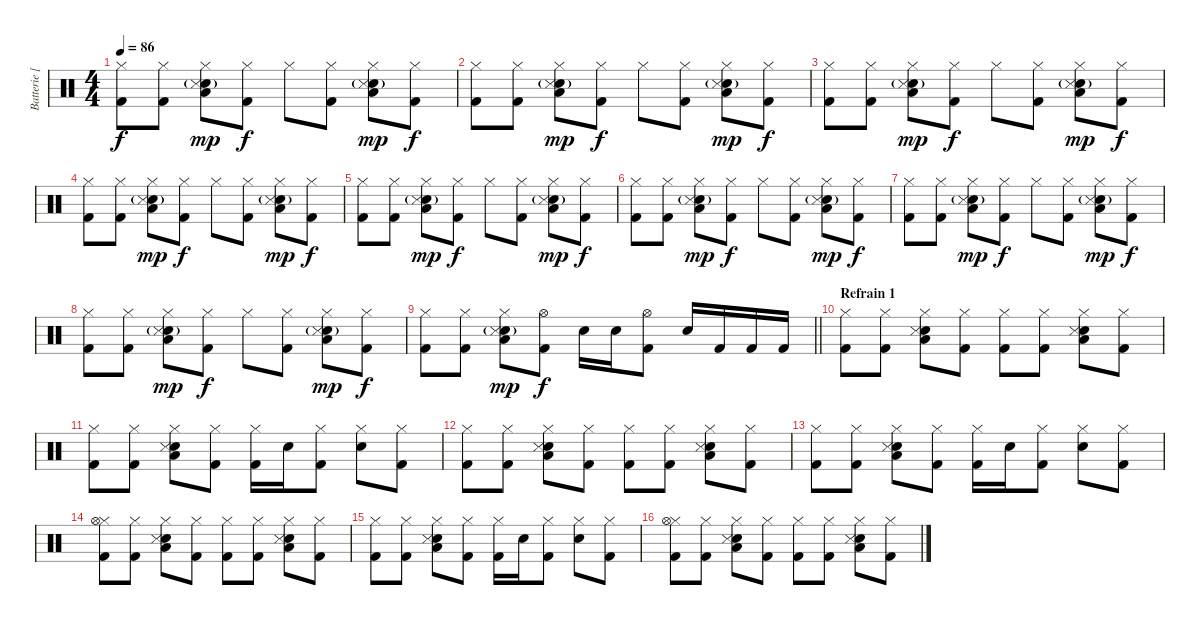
\track ("Batterie [Dominic Howard]" "Batterie [") {instrument percussion}
\staff {score}
\articulation defaults
\ts (4 4)
\tempo 86
\clef neutral
\ks c
("Hi-Hat (closed)" "Kick (hit) 2").8{dy f} ("Hi-Hat (closed)" "Kick (hit) 2").8 ("Hi-Hat (closed)" "Low Tom (hit)" "Electric Snare (hit)"{g} "Snare (side stick) 3").8{dy mp} ("Hi-Hat (closed)" "Kick (hit) 2").8{dy f} "Hi-Hat (closed)".8 ("Hi-Hat (closed)" "Kick (hit) 2").8 ("Hi-Hat (closed)" "Low Tom (hit)" "Electric Snare (hit)"{g} "Snare (side stick) 3").8{dy mp} ("Hi-Hat (closed)" "Kick (hit) 2").8{dy f} |
("Hi-Hat (closed)" "Kick (hit) 2").8 ("Hi-Hat (closed)" "Kick (hit) 2").8 ("Hi-Hat (closed)" "Low Tom (hit)" "Electric Snare (hit)"{g} "Snare (side stick) 3").8{dy mp} ("Hi-Hat (closed)" "Kick (hit) 2").8{dy f} "Hi-Hat (closed)".8 ("Hi-Hat (closed)" "Kick (hit) 2").8 ("Hi-Hat (closed)" "Low Tom (hit)" "Electric Snare (hit)"{g} "Snare (side stick) 3").8{dy mp} ("Hi-Hat (closed)" "Kick (hit) 2").8{dy f} |
("Hi-Hat (closed)" "Kick (hit) 2").8 ("Hi-Hat (closed)" "Kick (hit) 2").8 ("Hi-Hat (closed)" "Low Tom (hit)" "Electric Snare (hit)"{g} "Snare (side stick) 3").8{dy mp} ("Hi-Hat (closed)" "Kick (hit) 2").8{dy f} "Hi-Hat (closed)".8 ("Hi-Hat (closed)" "Kick (hit) 2").8 ("Hi-Hat (closed)" "Low Tom (hit)" "Electric Snare (hit)"{g} "Snare (side stick) 3").8{dy mp} ("Hi-Hat (closed)" "Kick (hit) 2").8{dy f} |
("Hi-Hat (closed)" "Kick (hit) 2").8 ("Hi-Hat (closed)" "Kick (hit) 2").8 ("Hi-Hat (closed)" "Low Tom (hit)" "Electric Snare (hit)"{g} "Snare (side stick) 3").8{dy mp} ("Hi-Hat (closed)" "Kick (hit) 2").8{dy f} "Hi-Hat (closed)".8 ("Hi-Hat (closed)" "Kick (hit) 2").8 ("Hi-Hat (closed)" "Low Tom (hit)" "Electric Snare (hit)"{g} "Snare (side stick) 3").8{dy mp} ("Hi-Hat (closed)" "Kick (hit) 2").8{dy f} |
("Hi-Hat (closed)" "Kick (hit) 2").8 ("Hi-Hat (closed)" "Kick (hit) 2").8 ("Hi-Hat (closed)" "Low Tom (hit)" "Electric Snare (hit)"{g} "Snare (side stick) 3").8{dy mp} ("Hi-Hat (closed)" "Kick (hit) 2").8{dy f} "Hi-Hat (closed)".8 ("Hi-Hat (closed)" "Kick (hit) 2").8 ("Hi-Hat (closed)" "Low Tom (hit)" "Electric Snare (hit)"{g} "Snare (side stick) 3").8{dy mp} ("Hi-Hat (closed)" "Kick (hit) 2").8{dy f} |
("Hi-Hat (closed)" "Kick (hit) 2").8 ("Hi-Hat (closed)" "Kick (hit) 2").8 ("Hi-Hat (closed)" "Low Tom (hit)" "Electric Snare (hit)"{g} "Snare (side stick) 3").8{dy mp} ("Hi-Hat (closed)" "Kick (hit) 2").8{dy f} "Hi-Hat (closed)".8 ("Hi-Hat (closed)" "Kick (hit) 2").8 ("Hi-Hat (closed)" "Low Tom (hit)" "Electric Snare (hit)"{g} "Snare (side stick) 3").8{dy mp} ("Hi-Hat (closed)" "Kick (hit) 2").8{dy f} |
("Hi-Hat (closed)" "Kick (hit) 2").8 ("Hi-Hat (closed)" "Kick (hit) 2").8 ("Hi-Hat (closed)" "Low Tom (hit)" "Electric Snare (hit)"{g} "Snare (side stick) 3").8{dy mp} ("Hi-Hat (closed)" "Kick (hit) 2").8{dy f} "Hi-Hat (closed)".8 ("Hi-Hat (closed)" "Kick (hit) 2").8 ("Hi-Hat (closed)" "Low Tom (hit)" "Electric Snare (hit)"{g} "Snare (side stick) 3").8{dy mp} ("Hi-Hat (closed)" "Kick (hit) 2").8{dy f} |
("Hi-Hat (closed)" "Kick (hit) 2").8 ("Hi-Hat (closed)" "Kick (hit) 2").8 ("Hi-Hat (closed)" "Low Tom (hit)" "Electric Snare (hit)"{g} "Snare (side stick) 3").8{dy mp} ("Hi-Hat (closed)" "Kick (hit) 2").8{dy f} "Hi-Hat (closed)".8 ("Hi-Hat (closed)" "Kick (hit) 2").8 ("Hi-Hat (closed)" "Low Tom (hit)" "Electric Snare (hit)"{g} "Snare (side stick) 3").8{dy mp} ("Hi-Hat (closed)" "Kick (hit) 2").8{dy f} |
\barLineRight lightlight
("Hi-Hat (closed)" "Kick (hit) 2").8 ("Hi-Hat (closed)" "Kick (hit) 2").8 ("Hi-Hat (closed)" "Low Tom (hit)" "Electric Snare (hit)"{g} "Snare (side stick) 3").8{dy mp} ("Hi-Hat (open)" "Kick (hit) 2").8{dy f} "Electric Snare (hit)".16 "Electric Snare (hit)".16 ("Hi-Hat (open)" "Kick (hit) 2").8 "Electric Snare (hit)".16 "Kick (hit) 2".16 "Kick (hit) 2".16 "Kick (hit) 2".16 |
\section ("" "Refrain 1")
("Hi-Hat (closed)" "Kick (hit) 2").8 ("Hi-Hat (closed)" "Kick (hit) 2").8 ("Hi-Hat (closed)" "Low Tom (hit)" "Electric Snare (hit)" "Snare (side stick) 3").8 ("Hi-Hat (closed)" "Kick (hit) 2").8 ("Hi-Hat (closed)" "Kick (hit) 2").8 ("Hi-Hat (closed)" "Kick (hit) 2").8 ("Hi-Hat (closed)" "Low Tom (hit)" "Electric Snare (hit)" "Snare (side stick) 3").8 ("Hi-Hat (closed)" "Kick (hit) 2").8 |
("Hi-Hat (closed)" "Kick (hit) 2").8 ("Hi-Hat (closed)" "Kick (hit) 2").8 ("Hi-Hat (closed)" "Low Tom (hit)" "Electric Snare (hit)" "Snare (side stick) 3").8 ("Hi-Hat (closed)" "Kick (hit) 2").8 ("Hi-Hat (closed)" "Kick (hit) 2").16 "Electric Snare (hit)".16 ("Hi-Hat (closed)" "Kick (hit) 2").8 ("Hi-Hat (closed)" "Electric Snare (hit)").8 ("Hi-Hat (closed)" "Kick (hit) 2").8 |
("Hi-Hat (closed)" "Kick (hit) 2").8 ("Hi-Hat (closed)" "Kick (hit) 2").8 ("Hi-Hat (closed)" "Low Tom (hit)" "Electric Snare (hit)" "Snare (side stick) 3").8 ("Hi-Hat (closed)" "Kick (hit) 2").8 ("Hi-Hat (closed)" "Kick (hit) 2").8 ("Hi-Hat (closed)" "Kick (hit) 2").8 ("Hi-Hat (closed)" "Low Tom (hit)" "Electric Snare (hit)" "Snare (side stick) 3").8 ("Hi-Hat (closed)" "Kick (hit) 2").8 |
("Hi-Hat (closed)" "Kick (hit) 2").8 ("Hi-Hat (closed)" "Kick (hit) 2").8 ("Hi-Hat (closed)" "Low Tom (hit)" "Electric Snare (hit)" "Snare (side stick) 3").8 ("Hi-Hat (closed)" "Kick (hit) 2").8 ("Hi-Hat (closed)" "Kick (hit) 2").16 "Electric Snare (hit)".16 ("Hi-Hat (closed)" "Kick (hit) 2").8 ("Hi-Hat (closed)" "Electric Snare (hit)").8 ("Hi-Hat (closed)" "Kick (hit) 2").8 |
("Hi-Hat (closed)" "Hi-Hat (open)" "Kick (hit) 2").8 ("Hi-Hat (closed)" "Kick (hit) 2").8 ("Hi-Hat (closed)" "Low Tom (hit)" "Electric Snare (hit)" "Snare (side stick) 3").8 ("Hi-Hat (closed)" "Kick (hit) 2").8 ("Hi-Hat (closed)" "Kick (hit) 2").8 ("Hi-Hat (closed)" "Kick (hit) 2").8 ("Hi-Hat (closed)" "Low Tom (hit)" "Electric Snare (hit)" "Snare (side stick) 3").8 ("Hi-Hat (closed)" "Kick (hit) 2").8 |
("Hi-Hat (closed)" "Kick (hit) 2").8 ("Hi-Hat (closed)" "Kick (hit) 2").8 ("Hi-Hat (closed)" "Low Tom (hit)" "Electric Snare (hit)" "Snare (side stick) 3").8 ("Hi-Hat (closed)" "Kick (hit) 2").8 ("Hi-Hat (closed)" "Kick (hit) 2").16 "Electric Snare (hit)".16 ("Hi-Hat (closed)" "Kick (hit) 2").8 ("Hi-Hat (closed)" "Electric Snare (hit)").8 ("Hi-Hat (closed)" "Kick (hit) 2").8 |
("Hi-Hat (closed)" "Hi-Hat (open)" "Kick (hit) 2").8 ("Hi-Hat (closed)" "Kick (hit) 2").8 ("Hi-Hat (closed)" "Low Tom (hit)" "Electric Snare (hit)" "Snare (side stick) 3").8 ("Hi-Hat (closed)" "Kick (hit) 2").8 ("Hi-Hat (closed)" "Kick (hit) 2").8 ("Hi-Hat (closed)" "Kick (hit) 2").8 ("Hi-Hat (closed)" "Low Tom (hit)" "Electric Snare (hit)" "Snare (side stick) 3").8 ("Hi-Hat (closed)" "Kick (hit) 2").8
